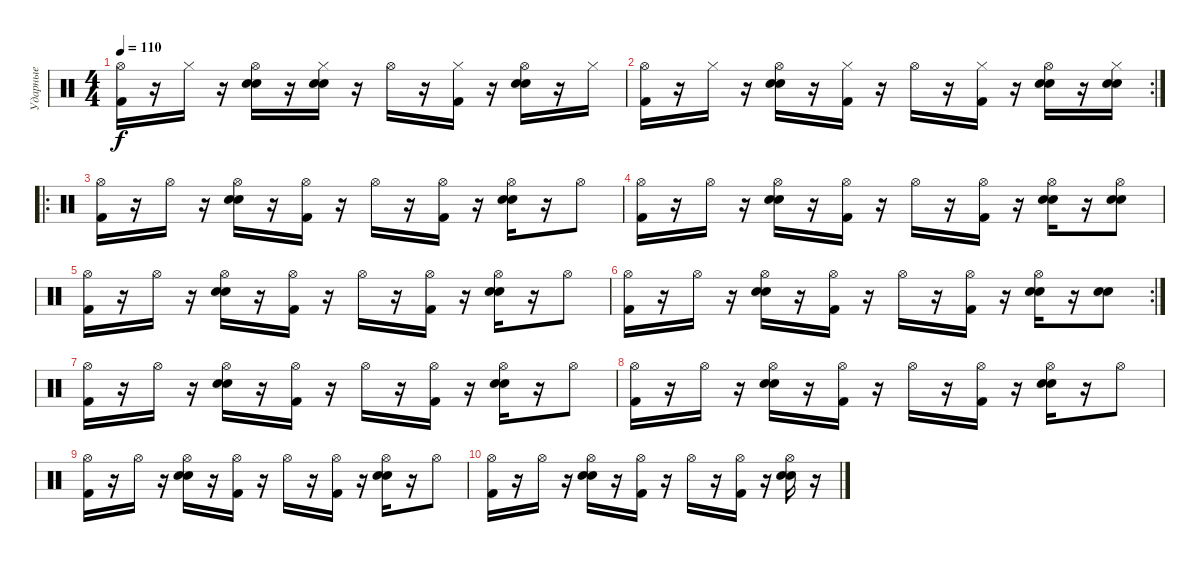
\track ("Ударные" "Ударные") {instrument percussion}
\staff {score}
\articulation defaults
\ts (4 4)
\tempo 110
\clef neutral
\ks c
("Hi-Hat (open)" "Kick (hit) 2").16{dy f} r.16 "Hi-Hat (closed)".16 r.16 ("Hi-Hat (open)" "Electric Snare (hit)" "Snare (hit) 2").16 r.16 ("Hi-Hat (closed)" "Electric Snare (hit)" "Snare (hit) 2").16 r.16 "Hi-Hat (open)".16 r.16 ("Hi-Hat (closed)" "Kick (hit) 2").16 r.16 ("Hi-Hat (open)" "Electric Snare (hit)" "Snare (hit) 2").16 r.16 "Hi-Hat (closed)".16 |
\rc 2
("Hi-Hat (open)" "Kick (hit) 2").16 r.16 "Hi-Hat (closed)".16 r.16 ("Hi-Hat (open)" "Electric Snare (hit)" "Snare (hit) 2").16 r.16 ("Hi-Hat (closed)" "Kick (hit) 2").16 r.16 "Hi-Hat (open)".16 r.16 ("Hi-Hat (closed)" "Kick (hit) 2").16 r.16 ("Hi-Hat (open)" "Electric Snare (hit)" "Snare (hit) 2").16 r.16 ("Hi-Hat (closed)" "Electric Snare (hit)" "Snare (hit) 2").16 |
\ro
("Hi-Hat (open)" "Kick (hit) 2").16 r.16 "Hi-Hat (open)".16 r.16 ("Hi-Hat (open)" "Electric Snare (hit)" "Snare (hit) 2").16 r.16 ("Hi-Hat (open)" "Kick (hit) 2").16 r.16 "Hi-Hat (open)".16 r.16 ("Hi-Hat (open)" "Kick (hit) 2").16 r.16 ("Hi-Hat (open)" "Electric Snare (hit)" "Snare (hit) 2").16 r.16 "Hi-Hat (open)".8 |
("Hi-Hat (open)" "Kick (hit) 2").16 r.16 "Hi-Hat (open)".16 r.16 ("Hi-Hat (open)" "Electric Snare (hit)" "Snare (hit) 2").16 r.16 ("Hi-Hat (open)" "Kick (hit) 2").16 r.16 "Hi-Hat (open)".16 r.16 ("Hi-Hat (open)" "Kick (hit) 2").16 r.16 ("Hi-Hat (open)" "Electric Snare (hit)" "Snare (hit) 2").16 r.16 ("Hi-Hat (open)" "Electric Snare (hit)" "Snare (hit) 2").8 |
("Hi-Hat (open)" "Kick (hit) 2").16 r.16 "Hi-Hat (open)".16 r.16 ("Hi-Hat (open)" "Electric Snare (hit)" "Snare (hit) 2").16 r.16 ("Hi-Hat (open)" "Kick (hit) 2").16 r.16 "Hi-Hat (open)".16 r.16 ("Hi-Hat (open)" "Kick (hit) 2").16 r.16 ("Hi-Hat (open)" "Electric Snare (hit)" "Snare (hit) 2").16 r.16 "Hi-Hat (open)".8 |
\rc 2
("Hi-Hat (open)" "Kick (hit) 2").16 r.16 "Hi-Hat (open)".16 r.16 ("Hi-Hat (open)" "Electric Snare (hit)" "Snare (hit) 2").16 r.16 ("Hi-Hat (open)" "Kick (hit) 2").16 r.16 "Hi-Hat (open)".16 r.16 ("Hi-Hat (open)" "Kick (hit) 2").16 r.16 ("Hi-Hat (open)" "Electric Snare (hit)" "Snare (hit) 2").16 r.16 ("Electric Snare (hit)" "Snare (hit) 2").8 |
("Hi-Hat (open)" "Kick (hit) 2").16 r.16 "Hi-Hat (open)".16 r.16 ("Hi-Hat (open)" "Electric Snare (hit)" "Snare (hit) 2").16 r.16 ("Hi-Hat (open)" "Kick (hit) 2").16 r.16 "Hi-Hat (open)".16 r.16 ("Hi-Hat (open)" "Kick (hit) 2").16 r.16 ("Hi-Hat (open)" "Electric Snare (hit)" "Snare (hit) 2").16 r.16 "Hi-Hat (open)".8 |
("Hi-Hat (open)" "Kick (hit) 2").16 r.16 "Hi-Hat (open)".16 r.16 ("Hi-Hat (open)" "Electric Snare (hit)" "Snare (hit) 2").16 r.16 ("Hi-Hat (open)" "Kick (hit) 2").16 r.16 "Hi-Hat (open)".16 r.16 ("Hi-Hat (open)" "Kick (hit) 2").16 r.16 ("Hi-Hat (open)" "Electric Snare (hit)" "Snare (hit) 2").16 r.16 "Hi-Hat (open)".8 |
("Hi-Hat (open)" "Kick (hit) 2").16 r.16 "Hi-Hat (open)".16 r.16 ("Hi-Hat (open)" "Electric Snare (hit)" "Snare (hit) 2").16 r.16 ("Hi-Hat (open)" "Kick (hit) 2").16 r.16 "Hi-Hat (open)".16 r.16 ("Hi-Hat (open)" "Kick (hit) 2").16 r.16 ("Hi-Hat (open)" "Electric Snare (hit)" "Snare (hit) 2").16 r.16 "Hi-Hat (open)".8 |
("Hi-Hat (open)" "Kick (hit) 2").16 r.16 "Hi-Hat (open)".16 r.16 ("Hi-Hat (open)" "Electric Snare (hit)" "Snare (hit) 2").16 r.16 ("Hi-Hat (open)" "Kick (hit) 2").16 r.16 "Hi-Hat (open)".16 r.16 ("Hi-Hat (open)" "Kick (hit) 2").16 r.16 ("Hi-Hat (open)" "Electric Snare (hit)" "Snare (hit) 2").16 r.16
